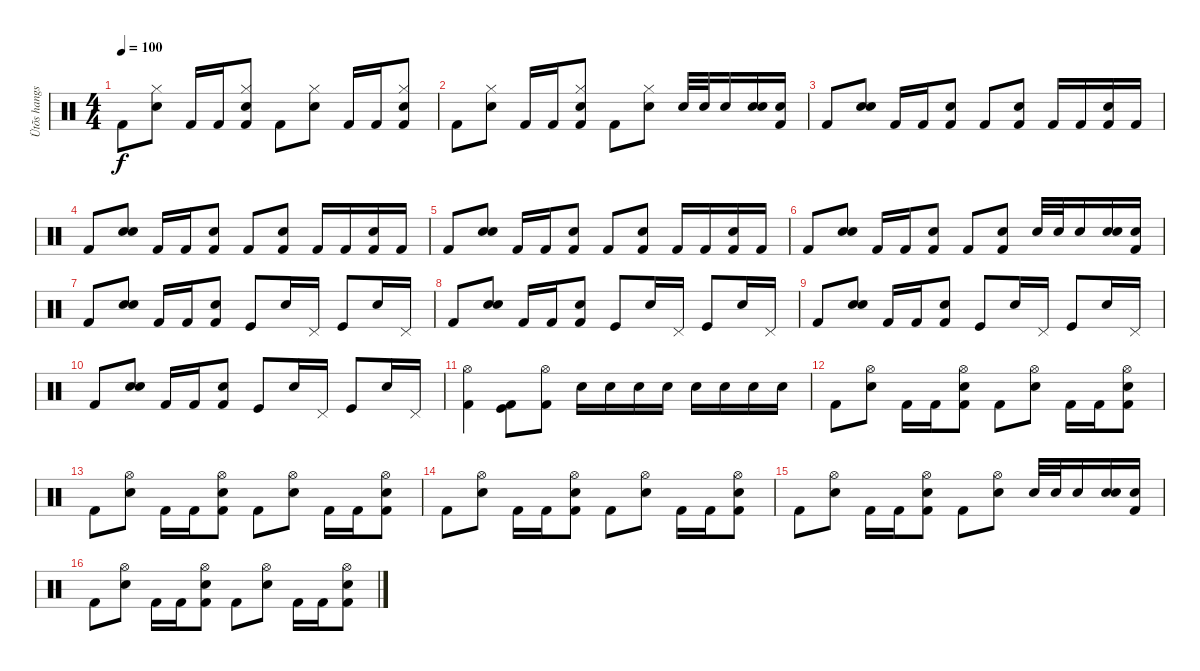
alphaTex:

\track ("Ütõs hangszer" "Ütõs hangs") {instrument percussion}
\staff {score}
\articulation defaults
\ts (4 4)
\tempo 100
\clef neutral
\ks c "Kick (hit) 2".8{dy f}
("Hi-Hat (closed)" "Snare (hit) 2").8 "Kick (hit) 2".16 "Kick (hit) 2".16 ("Hi-Hat (closed)" "Kick (hit) 2" "Snare (hit) 2").8 "Kick (hit) 2".8 ("Hi-Hat (closed)" "Snare (hit) 2").8 "Kick (hit) 2".16 "Kick (hit) 2".16 ("Hi-Hat (closed)" "Kick (hit) 2" "Snare (hit) 2").8 |
"Kick (hit) 2".8 ("Hi-Hat (closed)" "Snare (hit) 2").8 "Kick (hit) 2".16 "Kick (hit) 2".16 ("Hi-Hat (closed)" "Kick (hit) 2" "Snare (hit) 2").8 "Kick (hit) 2".8 ("Hi-Hat (closed)" "Snare (hit) 2").8 "Snare (hit) 2".32 "Snare (hit) 2".32 "Snare (hit) 2".16 ("Snare (hit) 2" "Snare (hit) 2").16 ("Kick (hit) 2" "Snare (hit) 2").16 |
"Kick (hit) 2".8 ("Snare (hit) 2" "Snare (hit) 2").8 "Kick (hit) 2".16 "Kick (hit) 2".16 ("Kick (hit) 2" "Snare (hit) 2").8 "Kick (hit) 2".8 ("Kick (hit) 2" "Snare (hit) 2").8 "Kick (hit) 2".16 "Kick (hit) 2".16 ("Kick (hit) 2" "Snare (hit) 2").16 "Kick (hit) 2".16 |
"Kick (hit) 2".8 ("Snare (hit) 2" "Snare (hit) 2").8 "Kick (hit) 2".16 "Kick (hit) 2".16 ("Kick (hit) 2" "Snare (hit) 2").8 "Kick (hit) 2".8 ("Kick (hit) 2" "Snare (hit) 2").8 "Kick (hit) 2".16 "Kick (hit) 2".16 ("Kick (hit) 2" "Snare (hit) 2").16 "Kick (hit) 2".16 |
"Kick (hit) 2".8 ("Snare (hit) 2" "Snare (hit) 2").8 "Kick (hit) 2".16 "Kick (hit) 2".16 ("Kick (hit) 2" "Snare (hit) 2").8 "Kick (hit) 2".8 ("Kick (hit) 2" "Snare (hit) 2").8 "Kick (hit) 2".16 "Kick (hit) 2".16 ("Kick (hit) 2" "Snare (hit) 2").16 "Kick (hit) 2".16 |
"Kick (hit) 2".8 ("Snare (hit) 2" "Snare (hit) 2").8 "Kick (hit) 2".16 "Kick (hit) 2".16 ("Kick (hit) 2" "Snare (hit) 2").8 "Kick (hit) 2".8 ("Kick (hit) 2" "Snare (hit) 2").8 "Snare (hit) 2".32 "Snare (hit) 2".32 "Snare (hit) 2".16 ("Snare (hit) 2" "Snare (hit) 2").16 ("Kick (hit) 2" "Snare (hit) 2").16 |
"Kick (hit) 2".8 ("Snare (hit) 2" "Snare (hit) 2").8 "Kick (hit) 2".16 "Kick (hit) 2".16 ("Kick (hit) 2" "Snare (hit) 2").8 "Kick (hit)".8 "Snare (hit) 2".16 "Pedal Hi-Hat (hit)".16 "Kick (hit)".8 "Snare (hit) 2".16 "Pedal Hi-Hat (hit)".16 |
"Kick (hit) 2".8 ("Snare (hit) 2" "Snare (hit) 2").8 "Kick (hit) 2".16 "Kick (hit) 2".16 ("Kick (hit) 2" "Snare (hit) 2").8 "Kick (hit)".8 "Snare (hit) 2".16 "Pedal Hi-Hat (hit)".16 "Kick (hit)".8 "Snare (hit) 2".16 "Pedal Hi-Hat (hit)".16 |
"Kick (hit) 2".8 ("Snare (hit) 2" "Snare (hit) 2").8 "Kick (hit) 2".16 "Kick (hit) 2".16 ("Kick (hit) 2" "Snare (hit) 2").8 "Kick (hit)".8 "Snare (hit) 2".16 "Pedal Hi-Hat (hit)".16 "Kick (hit)".8 "Snare (hit) 2".16 "Pedal Hi-Hat (hit)".16 |
"Kick (hit) 2".8 ("Snare (hit) 2" "Snare (hit) 2").8 "Kick (hit) 2".16 "Kick (hit) 2".16 ("Kick (hit) 2" "Snare (hit) 2").8 "Kick (hit)".8 "Snare (hit) 2".16 "Pedal Hi-Hat (hit)".16 "Kick (hit)".8 "Snare (hit) 2".16 "Pedal Hi-Hat (hit)".16 |
("Kick (hit) 2" "Hi-Hat (open)").4 ("Kick (hit) 2" "Kick (hit)").8 ("Kick (hit) 2" "Hi-Hat (open)").8 "Snare (hit) 2".16 "Snare (hit) 2".16 "Snare (hit) 2".16 "Snare (hit) 2".16 "Snare (hit) 2".16 "Snare (hit) 2".16 "Snare (hit) 2".16 "Snare (hit) 2".16 |
"Kick (hit) 2".8 ("Hi-Hat (open)" "Snare (hit) 2").8 "Kick (hit) 2".16 "Kick (hit) 2".16 ("Hi-Hat (open)" "Kick (hit) 2" "Snare (hit) 2").8 "Kick (hit) 2".8 ("Hi-Hat (open)" "Snare (hit) 2").8 "Kick (hit) 2".16 "Kick (hit) 2".16 ("Hi-Hat (open)" "Kick (hit) 2" "Snare (hit) 2").8 |
"Kick (hit) 2".8 ("Hi-Hat (open)" "Snare (hit) 2").8 "Kick (hit) 2".16 "Kick (hit) 2".16 ("Hi-Hat (open)" "Kick (hit) 2" "Snare (hit) 2").8 "Kick (hit) 2".8 ("Hi-Hat (open)" "Snare (hit) 2").8 "Kick (hit) 2".16 "Kick (hit) 2".16 ("Hi-Hat (open)" "Kick (hit) 2" "Snare (hit) 2").8 |
"Kick (hit) 2".8 ("Hi-Hat (open)" "Snare (hit) 2").8 "Kick (hit) 2".16 "Kick (hit) 2".16 ("Hi-Hat (open)" "Kick (hit) 2" "Snare (hit) 2").8 "Kick (hit) 2".8 ("Hi-Hat (open)" "Snare (hit) 2").8 "Kick (hit) 2".16 "Kick (hit) 2".16 ("Hi-Hat (open)" "Kick (hit) 2" "Snare (hit) 2").8 |
"Kick (hit) 2".8 ("Hi-Hat (open)" "Snare (hit) 2").8 "Kick (hit) 2".16 "Kick (hit) 2".16 ("Hi-Hat (open)" "Kick (hit) 2" "Snare (hit) 2").8 "Kick (hit) 2".8 ("Hi-Hat (open)" "Snare (hit) 2").8 "Snare (hit) 2".32 "Snare (hit) 2".32 "Snare (hit) 2".16 ("Snare (hit) 2" "Snare (hit) 2").16 ("Kick (hit) 2" "Snare (hit) 2").16 |
"Kick (hit) 2".8 ("Hi-Hat (open)" "Snare (hit) 2").8 "Kick (hit) 2".16 "Kick (hit) 2".16 ("Hi-Hat (open)" "Kick (hit) 2" "Snare (hit) 2").8 "Kick (hit) 2".8 ("Hi-Hat (open)" "Snare (hit) 2").8 "Kick (hit) 2".16 "Kick (hit) 2".16 ("Hi-Hat (open)" "Kick (hit) 2" "Snare (hit) 2").8
